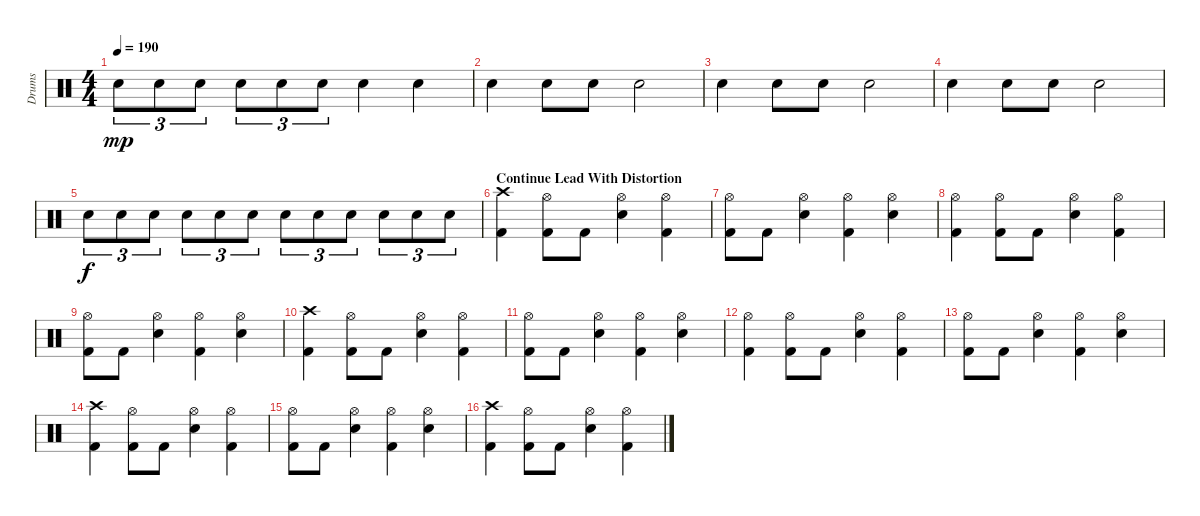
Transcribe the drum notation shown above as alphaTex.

\track ("Drums" "Drums") {instrument percussion}
\staff {score}
\articulation defaults
\ts (4 4)
\tempo 190
\clef neutral
\ks c "Snare (hit) 2".8{tu (3 2) dy mp} "Snare (hit) 2".8{tu (3 2)} "Snare (hit) 2".8{tu (3 2)} "Snare (hit) 2".8{tu (3 2)} "Snare (hit) 2".8{tu (3 2)} "Snare (hit) 2".8{tu (3 2)} "Snare (hit) 2".4 "Snare (hit) 2".4
|
"Snare (hit) 2".4 "Snare (hit) 2".8 "Snare (hit) 2".8 "Snare (hit) 2".2 |
"Snare (hit) 2".4 "Snare (hit) 2".8 "Snare (hit) 2".8 "Snare (hit) 2".2 |
"Snare (hit) 2".4 "Snare (hit) 2".8 "Snare (hit) 2".8 "Snare (hit) 2".2 |
"Snare (hit) 2".8{tu (3 2) dy f} "Snare (hit) 2".8{tu (3 2)} "Snare (hit) 2".8{tu (3 2)} "Snare (hit) 2".8{tu (3 2)} "Snare (hit) 2".8{tu (3 2)} "Snare (hit) 2".8{tu (3 2)} "Snare (hit) 2".8{tu (3 2)} "Snare (hit) 2".8{tu (3 2)} "Snare (hit) 2".8{tu (3 2)} "Snare (hit) 2".8{tu (3 2)} "Snare (hit) 2".8{tu (3 2)} "Snare (hit) 2".8{tu (3 2)} |
\section ("" "Continue Lead With Distortion")
("Crash high (hit)" "Kick (hit) 2").4 ("Hi-Hat (open)" "Kick (hit) 2").8 "Kick (hit) 2".8 ("Hi-Hat (open)" "Snare (hit) 2").4 ("Hi-Hat (open)" "Kick (hit) 2").4 |
("Hi-Hat (open)" "Kick (hit) 2").8 "Kick (hit) 2".8 ("Hi-Hat (open)" "Snare (hit) 2").4 ("Hi-Hat (open)" "Kick (hit) 2").4 ("Hi-Hat (open)" "Snare (hit) 2").4 |
("Hi-Hat (open)" "Kick (hit) 2").4 ("Hi-Hat (open)" "Kick (hit) 2").8 "Kick (hit) 2".8 ("Hi-Hat (open)" "Snare (hit) 2").4 ("Hi-Hat (open)" "Kick (hit) 2").4 |
("Hi-Hat (open)" "Kick (hit) 2").8 "Kick (hit) 2".8 ("Hi-Hat (open)" "Snare (hit) 2").4 ("Hi-Hat (open)" "Kick (hit) 2").4 ("Hi-Hat (open)" "Snare (hit) 2").4 |
("Crash high (hit)" "Kick (hit) 2").4 ("Hi-Hat (open)" "Kick (hit) 2").8 "Kick (hit) 2".8 ("Hi-Hat (open)" "Snare (hit) 2").4 ("Hi-Hat (open)" "Kick (hit) 2").4 |
("Hi-Hat (open)" "Kick (hit) 2").8 "Kick (hit) 2".8 ("Hi-Hat (open)" "Snare (hit) 2").4 ("Hi-Hat (open)" "Kick (hit) 2").4 ("Hi-Hat (open)" "Snare (hit) 2").4 |
("Hi-Hat (open)" "Kick (hit) 2").4 ("Hi-Hat (open)" "Kick (hit) 2").8 "Kick (hit) 2".8 ("Hi-Hat (open)" "Snare (hit) 2").4 ("Hi-Hat (open)" "Kick (hit) 2").4 |
("Hi-Hat (open)" "Kick (hit) 2").8 "Kick (hit) 2".8 ("Hi-Hat (open)" "Snare (hit) 2").4 ("Hi-Hat (open)" "Kick (hit) 2").4 ("Hi-Hat (open)" "Snare (hit) 2").4 |
("Crash high (hit)" "Kick (hit) 2").4 ("Hi-Hat (open)" "Kick (hit) 2").8 "Kick (hit) 2".8 ("Hi-Hat (open)" "Snare (hit) 2").4 ("Hi-Hat (open)" "Kick (hit) 2").4 |
("Hi-Hat (open)" "Kick (hit) 2").8 "Kick (hit) 2".8 ("Hi-Hat (open)" "Snare (hit) 2").4 ("Hi-Hat (open)" "Kick (hit) 2").4 ("Hi-Hat (open)" "Snare (hit) 2").4 |
("Crash high (hit)" "Kick (hit) 2").4 ("Hi-Hat (open)" "Kick (hit) 2").8 "Kick (hit) 2".8 ("Hi-Hat (open)" "Snare (hit) 2").4 ("Hi-Hat (open)" "Kick (hit) 2").4
